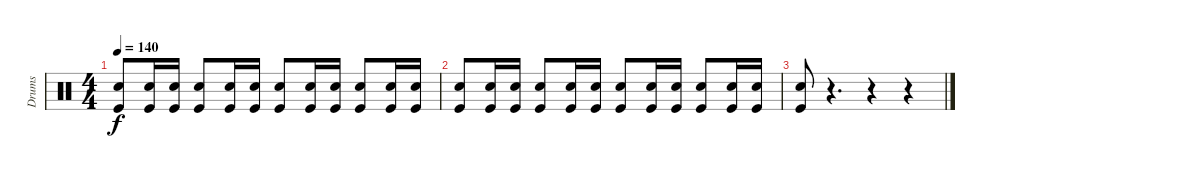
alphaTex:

\track ("Drums" "Drums") {instrument percussion}
\staff {score}
\articulation defaults
\ts (4 4)
\tempo 140
\clef neutral
\ks c
("Snare (hit) 2" "Kick (hit)").8{dy f} ("Snare (hit) 2" "Kick (hit)").16 ("Snare (hit) 2" "Kick (hit)").16 ("Snare (hit) 2" "Kick (hit)").8 ("Snare (hit) 2" "Kick (hit)").16 ("Snare (hit) 2" "Kick (hit)").16 ("Snare (hit) 2" "Kick (hit)").8 ("Snare (hit) 2" "Kick (hit)").16 ("Snare (hit) 2" "Kick (hit)").16 ("Snare (hit) 2" "Kick (hit)").8 ("Snare (hit) 2" "Kick (hit)").16 ("Snare (hit) 2" "Kick (hit)").16 |
("Snare (hit) 2" "Kick (hit)").8 ("Snare (hit) 2" "Kick (hit)").16 ("Snare (hit) 2" "Kick (hit)").16 ("Snare (hit) 2" "Kick (hit)").8 ("Snare (hit) 2" "Kick (hit)").16 ("Snare (hit) 2" "Kick (hit)").16 ("Snare (hit) 2" "Kick (hit)").8 ("Snare (hit) 2" "Kick (hit)").16 ("Snare (hit) 2" "Kick (hit)").16 ("Snare (hit) 2" "Kick (hit)").8 ("Snare (hit) 2" "Kick (hit)").16 ("Snare (hit) 2" "Kick (hit)").16 |
("Snare (hit) 2" "Kick (hit)").8 r.4{d} r.4 r.4
